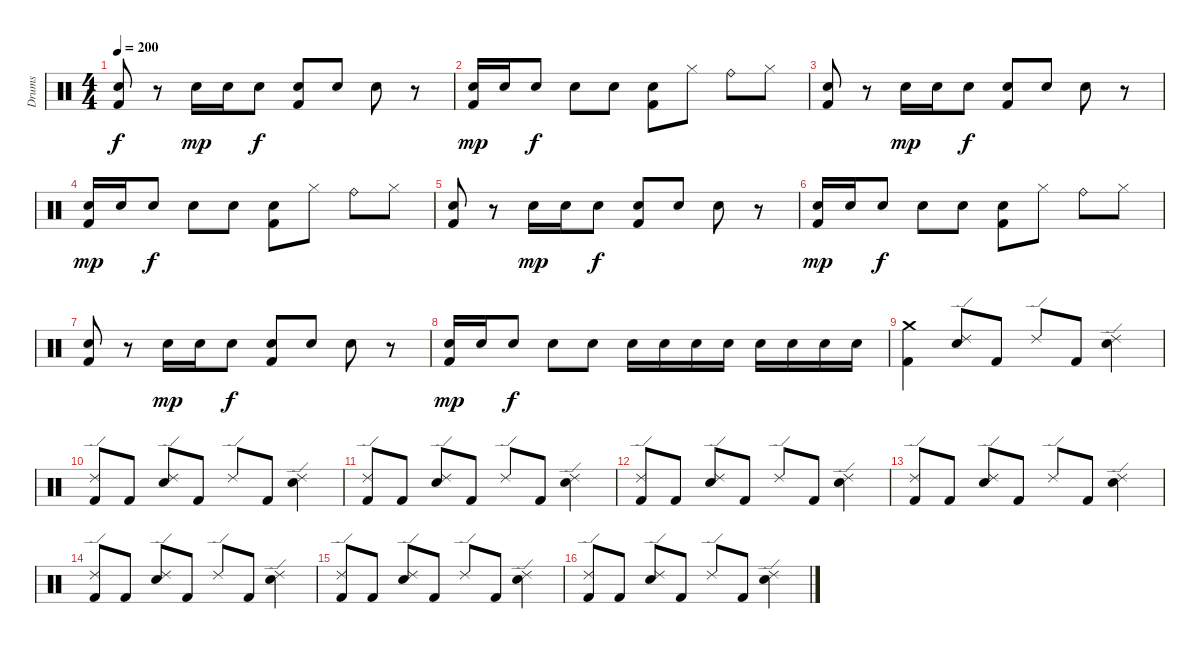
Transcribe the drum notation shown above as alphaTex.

\track ("Drums" "Drums") {instrument percussion}
\staff {score}
\articulation defaults
\ts (4 4)
\tempo 200
\clef neutral
\ks c
("Kick (hit) 2" "Electric Snare (hit)").8{dy f} r.8 "Electric Snare (hit)".16{dy mp} "Electric Snare (hit)".16 "Electric Snare (hit)".8{dy f} ("Kick (hit) 2" "Electric Snare (hit)").8 "Electric Snare (hit)".8 "Electric Snare (hit)".8 r.8 |
("Kick (hit) 2" "Electric Snare (hit)").16{dy mp} "Electric Snare (hit)".16 "Electric Snare (hit)".8{dy f} "Electric Snare (hit)".8 "Electric Snare (hit)".8 ("Kick (hit) 2" "Electric Snare (hit)").8 "Hi-Hat (closed)".8 "Ride (bell)".8 "Hi-Hat (closed)".8 |
("Kick (hit) 2" "Electric Snare (hit)").8 r.8 "Electric Snare (hit)".16{dy mp} "Electric Snare (hit)".16 "Electric Snare (hit)".8{dy f} ("Kick (hit) 2" "Electric Snare (hit)").8 "Electric Snare (hit)".8 "Electric Snare (hit)".8 r.8 |
("Kick (hit) 2" "Electric Snare (hit)").16{dy mp} "Electric Snare (hit)".16 "Electric Snare (hit)".8{dy f} "Electric Snare (hit)".8 "Electric Snare (hit)".8 ("Kick (hit) 2" "Electric Snare (hit)").8 "Hi-Hat (closed)".8 "Ride (bell)".8 "Hi-Hat (closed)".8 |
("Kick (hit) 2" "Electric Snare (hit)").8 r.8 "Electric Snare (hit)".16{dy mp} "Electric Snare (hit)".16 "Electric Snare (hit)".8{dy f} ("Kick (hit) 2" "Electric Snare (hit)").8 "Electric Snare (hit)".8 "Electric Snare (hit)".8 r.8 |
("Kick (hit) 2" "Electric Snare (hit)").16{dy mp} "Electric Snare (hit)".16 "Electric Snare (hit)".8{dy f} "Electric Snare (hit)".8 "Electric Snare (hit)".8 ("Kick (hit) 2" "Electric Snare (hit)").8 "Hi-Hat (closed)".8 "Ride (bell)".8 "Hi-Hat (closed)".8 |
("Kick (hit) 2" "Electric Snare (hit)").8 r.8 "Electric Snare (hit)".16{dy mp} "Electric Snare (hit)".16 "Electric Snare (hit)".8{dy f} ("Kick (hit) 2" "Electric Snare (hit)").8 "Electric Snare (hit)".8 "Electric Snare (hit)".8 r.8 |
("Kick (hit) 2" "Electric Snare (hit)").16{dy mp} "Electric Snare (hit)".16 "Electric Snare (hit)".8{dy f} "Electric Snare (hit)".8 "Electric Snare (hit)".8 "Electric Snare (hit)".16 "Electric Snare (hit)".16 "Electric Snare (hit)".16 "Electric Snare (hit)".16 "Electric Snare (hit)".16 "Electric Snare (hit)".16 "Electric Snare (hit)".16 "Electric Snare (hit)".16 |
("Crash medium (hit)" "Kick (hit) 2").4 ("Ride (edge) 2" "Electric Snare (hit)").8 "Kick (hit) 2".8 "Ride (edge) 2".8 "Kick (hit) 2".8 ("Ride (edge) 2" "Electric Snare (hit)").4 |
("Kick (hit) 2" "Ride (edge) 2").8 "Kick (hit) 2".8 ("Electric Snare (hit)" "Ride (edge) 2").8 "Kick (hit) 2".8 "Ride (edge) 2".8 "Kick (hit) 2".8 ("Electric Snare (hit)" "Ride (edge) 2").4 |
("Kick (hit) 2" "Ride (edge) 2").8 "Kick (hit) 2".8 ("Electric Snare (hit)" "Ride (edge) 2").8 "Kick (hit) 2".8 "Ride (edge) 2".8 "Kick (hit) 2".8 ("Electric Snare (hit)" "Ride (edge) 2").4 |
("Kick (hit) 2" "Ride (edge) 2").8 "Kick (hit) 2".8 ("Electric Snare (hit)" "Ride (edge) 2").8 "Kick (hit) 2".8 "Ride (edge) 2".8 "Kick (hit) 2".8 ("Electric Snare (hit)" "Ride (edge) 2").4 |
("Kick (hit) 2" "Ride (edge) 2").8 "Kick (hit) 2".8 ("Electric Snare (hit)" "Ride (edge) 2").8 "Kick (hit) 2".8 "Ride (edge) 2".8 "Kick (hit) 2".8 ("Electric Snare (hit)" "Ride (edge) 2").4 |
("Kick (hit) 2" "Ride (edge) 2").8 "Kick (hit) 2".8 ("Electric Snare (hit)" "Ride (edge) 2").8 "Kick (hit) 2".8 "Ride (edge) 2".8 "Kick (hit) 2".8 ("Electric Snare (hit)" "Ride (edge) 2").4 |
("Kick (hit) 2" "Ride (edge) 2").8 "Kick (hit) 2".8 ("Electric Snare (hit)" "Ride (edge) 2").8 "Kick (hit) 2".8 "Ride (edge) 2".8 "Kick (hit) 2".8 ("Electric Snare (hit)" "Ride (edge) 2").4 |
("Kick (hit) 2" "Ride (edge) 2").8 "Kick (hit) 2".8 ("Electric Snare (hit)" "Ride (edge) 2").8 "Kick (hit) 2".8 "Ride (edge) 2".8 "Kick (hit) 2".8 ("Electric Snare (hit)" "Ride (edge) 2").4
